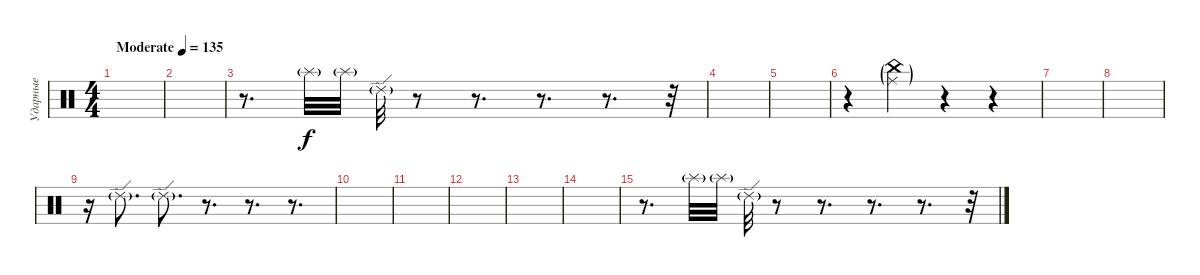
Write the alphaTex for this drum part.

\track ("Ударные" "Ударные") {instrument percussion}
\staff {score}
\articulation defaults
\ts (4 4)
\tempo (135 "Moderate")
\clef neutral
\ks c
|
|
r.8{d} "Splash (hit)"{g}.32 "Splash (hit)"{g}.32 "Ride (edge) 2"{g}.32 r.8 r.8{d} r.8{d} r.8{d} r.32 |
|
|
r.4 ("China (hit)"{g} "Ride (middle)"{g}).4 r.4 r.4 |
|
|
r.16 "Ride (edge) 2"{g}.8{d} "Ride (edge) 2"{g}.8{d} r.8{d} r.8{d} r.8{d} |
|
|
|
|
|
r.8{d} "Splash (hit)"{g}.32 "Splash (hit)"{g}.32 "Ride (edge) 2"{g}.32 r.8 r.8{d} r.8{d} r.8{d} r.32
